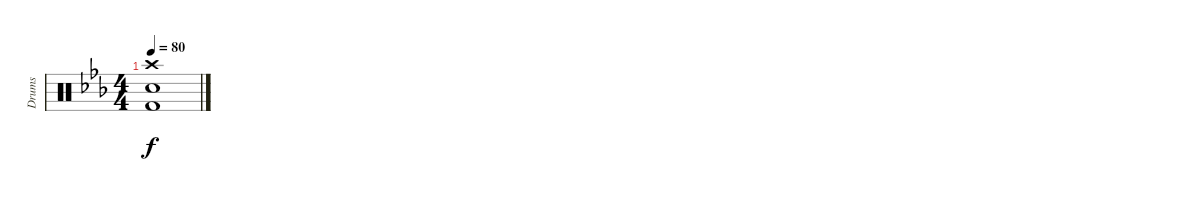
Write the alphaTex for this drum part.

\track ("Drums" "Drums") {instrument percussion}
\staff {score}
\articulation defaults
\ts (4 4)
\tempo 80
\clef neutral
\ks cminor
("Crash high (hit)" "Snare (hit) 2" "Kick (hit) 2").1{dy f}
